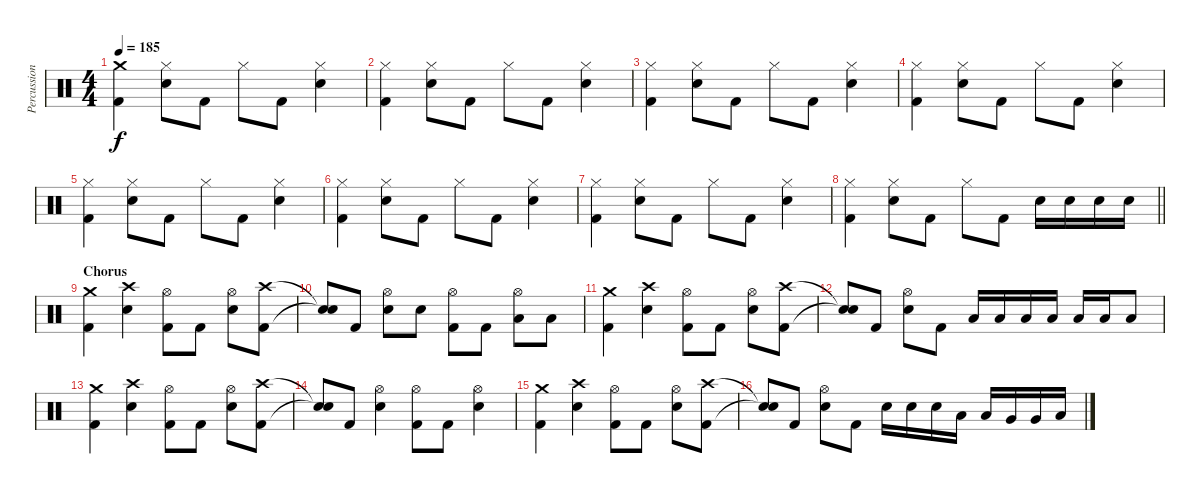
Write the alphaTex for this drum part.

\track ("Percussions" "Percussion") {instrument percussion}
\staff {score}
\articulation defaults
\ts (4 4)
\tempo 185
\clef neutral
\ks c
("Crash medium (hit)" "Kick (hit) 2").4{dy f} ("Hi-Hat (closed)" "Electric Snare (hit)").8 "Kick (hit) 2".8 "Hi-Hat (closed)".8 "Kick (hit) 2".8 ("Hi-Hat (closed)" "Electric Snare (hit)").4 |
("Hi-Hat (closed)" "Kick (hit) 2").4 ("Hi-Hat (closed)" "Electric Snare (hit)").8 "Kick (hit) 2".8 "Hi-Hat (closed)".8 "Kick (hit) 2".8 ("Hi-Hat (closed)" "Electric Snare (hit)").4 |
("Hi-Hat (closed)" "Kick (hit) 2").4 ("Hi-Hat (closed)" "Electric Snare (hit)").8 "Kick (hit) 2".8 "Hi-Hat (closed)".8 "Kick (hit) 2".8 ("Hi-Hat (closed)" "Electric Snare (hit)").4 |
("Hi-Hat (closed)" "Kick (hit) 2").4 ("Hi-Hat (closed)" "Electric Snare (hit)").8 "Kick (hit) 2".8 "Hi-Hat (closed)".8 "Kick (hit) 2".8 ("Hi-Hat (closed)" "Electric Snare (hit)").4 |
("Hi-Hat (closed)" "Kick (hit) 2").4 ("Hi-Hat (closed)" "Electric Snare (hit)").8 "Kick (hit) 2".8 "Hi-Hat (closed)".8 "Kick (hit) 2".8 ("Hi-Hat (closed)" "Electric Snare (hit)").4 |
("Hi-Hat (closed)" "Kick (hit) 2").4 ("Hi-Hat (closed)" "Electric Snare (hit)").8 "Kick (hit) 2".8 "Hi-Hat (closed)".8 "Kick (hit) 2".8 ("Hi-Hat (closed)" "Electric Snare (hit)").4 |
("Hi-Hat (closed)" "Kick (hit) 2").4 ("Hi-Hat (closed)" "Electric Snare (hit)").8 "Kick (hit) 2".8 "Hi-Hat (closed)".8 "Kick (hit) 2".8 ("Hi-Hat (closed)" "Electric Snare (hit)").4 |
\barLineRight lightlight
("Hi-Hat (closed)" "Kick (hit) 2").4 ("Hi-Hat (closed)" "Electric Snare (hit)").8 "Kick (hit) 2".8 "Hi-Hat (closed)".8 "Kick (hit) 2".8 "Electric Snare (hit)".16 "Electric Snare (hit)".16 "Electric Snare (hit)".16 "Electric Snare (hit)".16 |
\section ("" "Chorus")
("Crash medium (hit)" "Kick (hit) 2").4 ("Crash high (hit)" "Electric Snare (hit)").4 ("Hi-Hat (open)" "Kick (hit) 2").8 "Kick (hit) 2".8 ("Hi-Hat (open)" "Electric Snare (hit)").8 ("Crash high (hit)" "Kick (hit) 2").8 |
("Snare (hit)"{t} "Snare (hit)"{t}).8 "Kick (hit) 2".8 ("Hi-Hat (open)" "Electric Snare (hit)").8 "Electric Snare (hit)".8 ("Hi-Hat (open)" "Kick (hit) 2").8 "Kick (hit) 2".8 ("Hi-Hat (open)" "Low Tom (hit)").8 "Low Tom (hit)".8 |
("Crash medium (hit)" "Kick (hit) 2").4 ("Crash high (hit)" "Electric Snare (hit)").4 ("Hi-Hat (open)" "Kick (hit) 2").8 "Kick (hit) 2".8 ("Hi-Hat (open)" "Electric Snare (hit)").8 ("Crash high (hit)" "Kick (hit) 2").8 |
("Snare (hit)"{t} "Snare (hit)"{t}).8 "Kick (hit) 2".8 ("Hi-Hat (open)" "Electric Snare (hit)").8 "Kick (hit) 2".8 "Low Tom (hit)".16 "Low Tom (hit)".16 "Low Tom (hit)".16 "Low Tom (hit)".16 "Low Tom (hit)".16 "Low Tom (hit)".16 "Low Tom (hit)".8 |
("Crash medium (hit)" "Kick (hit) 2").4 ("Crash high (hit)" "Electric Snare (hit)").4 ("Hi-Hat (open)" "Kick (hit) 2").8 "Kick (hit) 2".8 ("Hi-Hat (open)" "Electric Snare (hit)").8 ("Crash high (hit)" "Kick (hit) 2").8 |
("Snare (hit)"{t} "Snare (hit)"{t}).8 "Kick (hit) 2".8 ("Hi-Hat (open)" "Electric Snare (hit)").4 ("Hi-Hat (open)" "Kick (hit) 2").8 "Kick (hit) 2".8 ("Hi-Hat (open)" "Electric Snare (hit)").4 |
("Crash medium (hit)" "Kick (hit) 2").4 ("Crash high (hit)" "Electric Snare (hit)").4 ("Hi-Hat (open)" "Kick (hit) 2").8 "Kick (hit) 2".8 ("Hi-Hat (open)" "Electric Snare (hit)").8 ("Crash high (hit)" "Kick (hit) 2").8 |
("Snare (hit)"{t} "Snare (hit)"{t}).8 "Kick (hit) 2".8 ("Hi-Hat (open)" "Electric Snare (hit)").8 "Kick (hit) 2".8 "Electric Snare (hit)".16 "Electric Snare (hit)".16 "Electric Snare (hit)".16 "Low Tom (hit)".16 "Low Tom (hit)".16 "Very Low Tom (hit)".16 "Very Low Tom (hit)".16 "Low Floor Tom (hit)".16
